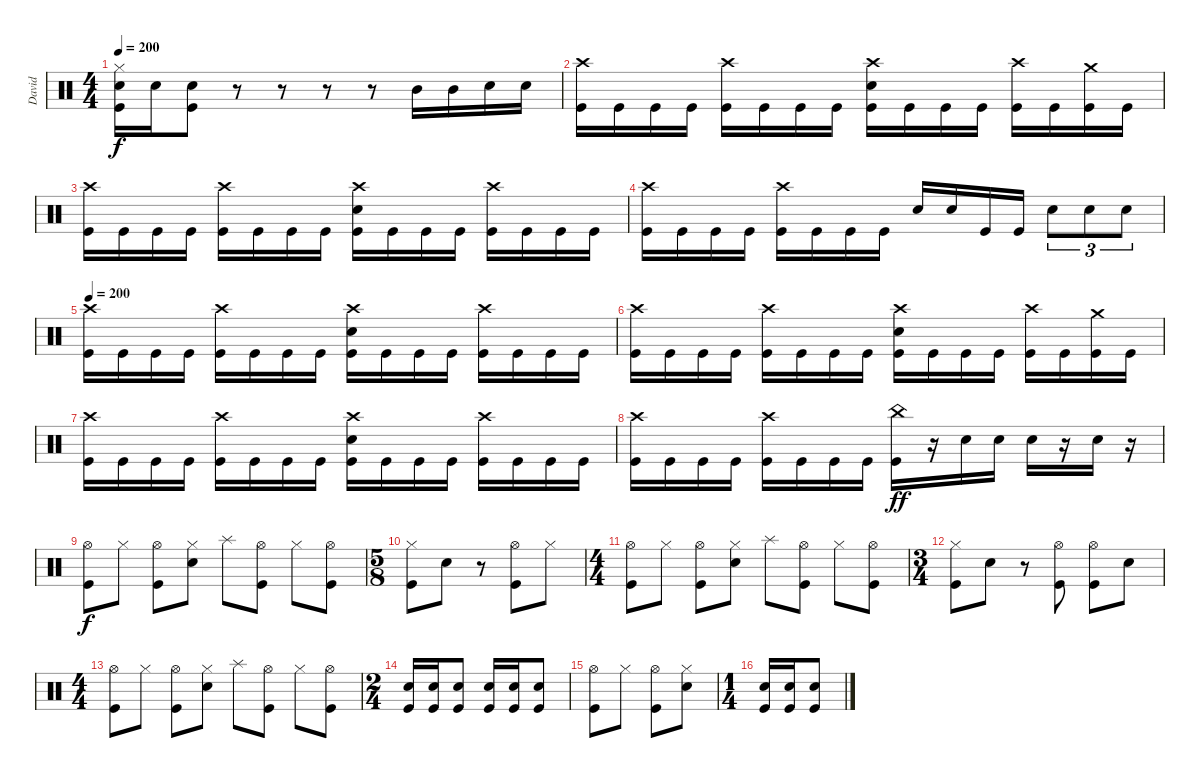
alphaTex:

\track ("David" "David") {instrument percussion}
\staff {score}
\articulation defaults
\ts (4 4)
\tempo 200
\clef neutral
\ks c
("Hi-Hat (closed)" "Electric Snare (hit)" "Kick (hit)").16{dy f} "Electric Snare (hit)".16 ("Electric Snare (hit)" "Kick (hit)").8 r.8 r.8 r.8 r.8 "Mid Tom (hit)".16 "Mid Tom (hit)".16 "Electric Snare (hit)".16 "Electric Snare (hit)".16 |
("Crash high (hit)" "Kick (hit)").16 "Kick (hit)".16 "Kick (hit)".16 "Kick (hit)".16 ("Crash high (hit)" "Kick (hit)").16 "Kick (hit)".16 "Kick (hit)".16 "Kick (hit)".16 ("Crash high (hit)" "Electric Snare (hit)" "Kick (hit)").16 "Kick (hit)".16 "Kick (hit)".16 "Kick (hit)".16 ("Crash high (hit)" "Kick (hit)").16 "Kick (hit)".16 ("Crash medium (hit)" "Kick (hit)").16 "Kick (hit)".16 |
("Crash high (hit)" "Kick (hit)").16 "Kick (hit)".16 "Kick (hit)".16 "Kick (hit)".16 ("Crash high (hit)" "Kick (hit)").16 "Kick (hit)".16 "Kick (hit)".16 "Kick (hit)".16 ("Crash high (hit)" "Electric Snare (hit)" "Kick (hit)").16 "Kick (hit)".16 "Kick (hit)".16 "Kick (hit)".16 ("Crash high (hit)" "Kick (hit)").16 "Kick (hit)".16 "Kick (hit)".16 "Kick (hit)".16 |
("Crash high (hit)" "Kick (hit)").16 "Kick (hit)".16 "Kick (hit)".16 "Kick (hit)".16 ("Crash high (hit)" "Kick (hit)").16 "Kick (hit)".16 "Kick (hit)".16 "Kick (hit)".16 "Electric Snare (hit)".16 "Electric Snare (hit)".16 "Kick (hit)".16 "Kick (hit)".16 "Electric Snare (hit)".8{tu (3 2)} "Electric Snare (hit)".8{tu (3 2)} "Electric Snare (hit)".8{tu (3 2)} |
\tempo 200
("Crash high (hit)" "Kick (hit)").16 "Kick (hit)".16 "Kick (hit)".16 "Kick (hit)".16 ("Crash high (hit)" "Kick (hit)").16 "Kick (hit)".16 "Kick (hit)".16 "Kick (hit)".16 ("Crash high (hit)" "Electric Snare (hit)" "Kick (hit)").16 "Kick (hit)".16 "Kick (hit)".16 "Kick (hit)".16 ("Crash high (hit)" "Kick (hit)").16 "Kick (hit)".16 "Kick (hit)".16 "Kick (hit)".16 |
("Crash high (hit)" "Kick (hit)").16 "Kick (hit)".16 "Kick (hit)".16 "Kick (hit)".16 ("Crash high (hit)" "Kick (hit)").16 "Kick (hit)".16 "Kick (hit)".16 "Kick (hit)".16 ("Crash high (hit)" "Electric Snare (hit)" "Kick (hit)").16 "Kick (hit)".16 "Kick (hit)".16 "Kick (hit)".16 ("Crash high (hit)" "Kick (hit)").16 "Kick (hit)".16 ("Crash medium (hit)" "Kick (hit)").16 "Kick (hit)".16 |
("Crash high (hit)" "Kick (hit)").16 "Kick (hit)".16 "Kick (hit)".16 "Kick (hit)".16 ("Crash high (hit)" "Kick (hit)").16 "Kick (hit)".16 "Kick (hit)".16 "Kick (hit)".16 ("Crash high (hit)" "Electric Snare (hit)" "Kick (hit)").16 "Kick (hit)".16 "Kick (hit)".16 "Kick (hit)".16 ("Crash high (hit)" "Kick (hit)").16 "Kick (hit)".16 "Kick (hit)".16 "Kick (hit)".16 |
("Crash high (hit)" "Kick (hit)").16 "Kick (hit)".16 "Kick (hit)".16 "Kick (hit)".16 ("Crash high (hit)" "Kick (hit)").16 "Kick (hit)".16 "Kick (hit)".16 "Kick (hit)".16 ("China (hit)" "Kick (hit)").16{dy ff} r.16 "Electric Snare (hit)".16 "Electric Snare (hit)".16 "Electric Snare (hit)".16 r.16 "Electric Snare (hit)".16 r.16 |
("Hi-Hat (open)" "Kick (hit)").8{dy f} "Hi-Hat (closed)".8 ("Hi-Hat (open)" "Kick (hit)").8 ("Hi-Hat (closed)" "Electric Snare (hit)").8 "Splash (hit)".8 ("Hi-Hat (open)" "Kick (hit)").8 "Hi-Hat (closed)".8 ("Hi-Hat (open)" "Kick (hit)").8 |
\ts (5 8)
("Hi-Hat (closed)" "Kick (hit)").8 "Electric Snare (hit)".8 r.8 ("Hi-Hat (open)" "Kick (hit)").8 "Hi-Hat (closed)".8 |
\ts (4 4)
("Hi-Hat (open)" "Kick (hit)").8 "Hi-Hat (closed)".8 ("Hi-Hat (open)" "Kick (hit)").8 ("Hi-Hat (closed)" "Electric Snare (hit)").8 "Splash (hit)".8 ("Hi-Hat (open)" "Kick (hit)").8 "Hi-Hat (closed)".8 ("Hi-Hat (open)" "Kick (hit)").8 |
\ts (3 4)
("Hi-Hat (closed)" "Kick (hit)").8 "Electric Snare (hit)".8 r.8 ("Hi-Hat (open)" "Kick (hit)").8 ("Hi-Hat (open)" "Kick (hit)").8 "Electric Snare (hit)".8 |
\ts (4 4)
("Hi-Hat (open)" "Kick (hit)").8 "Hi-Hat (closed)".8 ("Hi-Hat (open)" "Kick (hit)").8 ("Hi-Hat (closed)" "Electric Snare (hit)").8 "Splash (hit)".8 ("Hi-Hat (open)" "Kick (hit)").8 "Hi-Hat (closed)".8 ("Hi-Hat (open)" "Kick (hit)").8 |
\ts (2 4)
("Electric Snare (hit)" "Kick (hit)").16 ("Electric Snare (hit)" "Kick (hit)").16 ("Electric Snare (hit)" "Kick (hit)").8 ("Electric Snare (hit)" "Kick (hit)").16 ("Electric Snare (hit)" "Kick (hit)").16 ("Electric Snare (hit)" "Kick (hit)").8 |
("Hi-Hat (open)" "Kick (hit)").8 "Hi-Hat (closed)".8 ("Hi-Hat (open)" "Kick (hit)").8 ("Hi-Hat (closed)" "Electric Snare (hit)").8 |
\ts (1 4)
("Electric Snare (hit)" "Kick (hit)").16 ("Electric Snare (hit)" "Kick (hit)").16 ("Electric Snare (hit)" "Kick (hit)").8
